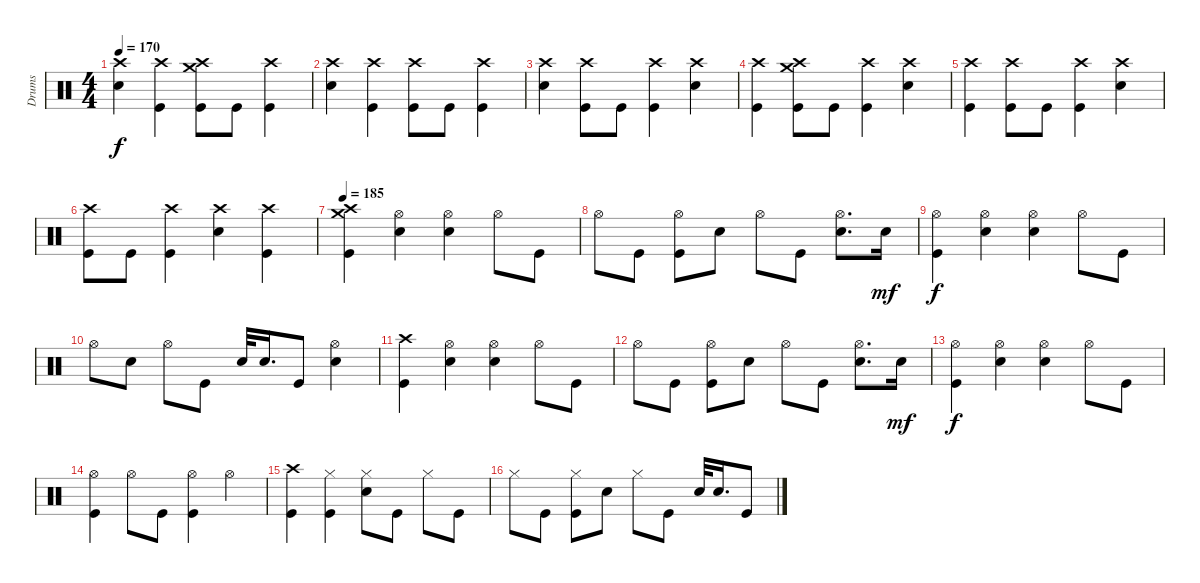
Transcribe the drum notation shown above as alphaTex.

\track ("Drums" "Drums") {instrument percussion}
\staff {score}
\articulation defaults
\ts (4 4)
\tempo 170
\clef neutral
\ks c
("Electric Snare (hit)" "Crash high (hit)").4{dy f} ("Kick (hit)" "Crash high (hit)").4 ("Kick (hit)" "Crash high (hit)" "Crash medium (hit)").8 "Kick (hit)".8 ("Kick (hit)" "Crash high (hit)").4 |
("Electric Snare (hit)" "Crash high (hit)").4 ("Kick (hit)" "Crash high (hit)").4 ("Kick (hit)" "Crash high (hit)").8 "Kick (hit)".8 ("Kick (hit)" "Crash high (hit)").4 |
("Electric Snare (hit)" "Crash high (hit)").4 ("Kick (hit)" "Crash high (hit)").8 "Kick (hit)".8 ("Kick (hit)" "Crash high (hit)").4 ("Electric Snare (hit)" "Crash high (hit)").4 |
("Kick (hit)" "Crash high (hit)").4 ("Kick (hit)" "Crash high (hit)" "Crash medium (hit)").8 "Kick (hit)".8 ("Kick (hit)" "Crash high (hit)").4 ("Electric Snare (hit)" "Crash high (hit)").4 |
("Kick (hit)" "Crash high (hit)").4 ("Kick (hit)" "Crash high (hit)").8 "Kick (hit)".8 ("Kick (hit)" "Crash high (hit)").4 ("Electric Snare (hit)" "Crash high (hit)").4 |
("Kick (hit)" "Crash high (hit)").8 "Kick (hit)".8 ("Kick (hit)" "Crash high (hit)").4 ("Electric Snare (hit)" "Crash high (hit)").4 ("Kick (hit)" "Crash high (hit)").4 |
\tempo 185
("Kick (hit)" "Crash high (hit)" "Crash medium (hit)").4{volume 11} ("Electric Snare (hit)" "Hi-Hat (open)").4 ("Electric Snare (hit)" "Hi-Hat (open)").4 "Hi-Hat (open)".8 "Kick (hit)".8 |
"Hi-Hat (open)".8 "Kick (hit)".8 ("Kick (hit)" "Hi-Hat (open)").8 "Electric Snare (hit)".8 "Hi-Hat (open)".8 "Kick (hit)".8 ("Electric Snare (hit)" "Hi-Hat (open)").8{d} "Electric Snare (hit)".16{dy mf} |
("Kick (hit)" "Hi-Hat (open)").4{dy f} ("Electric Snare (hit)" "Hi-Hat (open)").4 ("Electric Snare (hit)" "Hi-Hat (open)").4 "Hi-Hat (open)".8 "Kick (hit)".8 |
"Hi-Hat (open)".8 "Electric Snare (hit)".8 "Hi-Hat (open)".8 "Kick (hit)".8 "Electric Snare (hit)".32 "Electric Snare (hit)".16{d} "Kick (hit)".8 ("Electric Snare (hit)" "Hi-Hat (open)").4 |
("Kick (hit)" "Crash high (hit)").4 ("Electric Snare (hit)" "Hi-Hat (open)").4 ("Electric Snare (hit)" "Hi-Hat (open)").4 "Hi-Hat (open)".8 "Kick (hit)".8 |
"Hi-Hat (open)".8 "Kick (hit)".8 ("Kick (hit)" "Hi-Hat (open)").8 "Electric Snare (hit)".8 "Hi-Hat (open)".8 "Kick (hit)".8 ("Electric Snare (hit)" "Hi-Hat (open)").8{d} "Electric Snare (hit)".16{dy mf} |
("Kick (hit)" "Hi-Hat (open)").4{dy f} ("Electric Snare (hit)" "Hi-Hat (open)").4 ("Electric Snare (hit)" "Hi-Hat (open)").4 "Hi-Hat (open)".8 "Kick (hit)".8 |
("Kick (hit)" "Hi-Hat (open)").4 "Hi-Hat (open)".8 "Kick (hit)".8 ("Kick (hit)" "Hi-Hat (open)").4 "Hi-Hat (open)".4 |
("Kick (hit)" "Crash high (hit)").4 ("Kick (hit)" "Hi-Hat (closed)").4 ("Electric Snare (hit)" "Hi-Hat (closed)").8 "Kick (hit)".8 "Hi-Hat (closed)".8 "Kick (hit)".8 |
"Hi-Hat (closed)".8 "Kick (hit)".8 ("Kick (hit)" "Hi-Hat (closed)").8 "Electric Snare (hit)".8 "Hi-Hat (closed)".8 "Kick (hit)".8 "Electric Snare (hit)".32 "Electric Snare (hit)".16{d} "Kick (hit)".8
